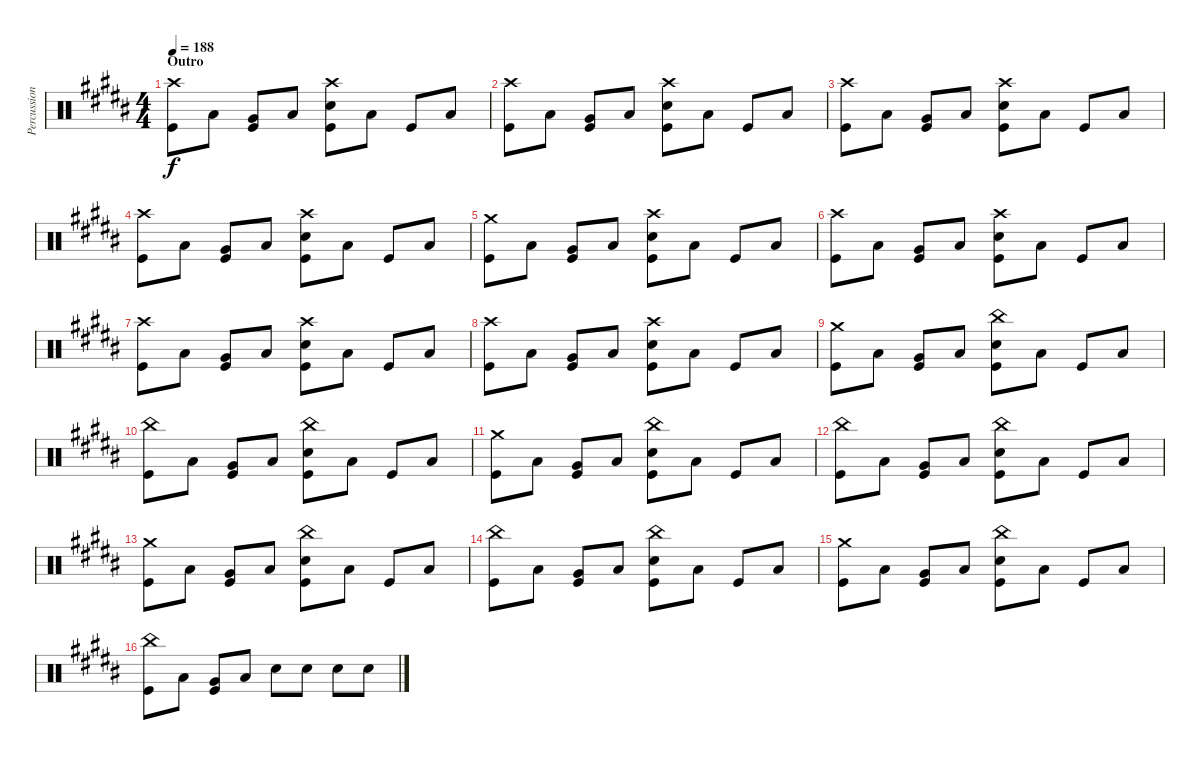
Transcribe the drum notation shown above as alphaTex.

\track ("Percussion" "Percussion") {instrument percussion}
\staff {score}
\articulation defaults
\ts (4 4)
\section ("" "Outro")
\tempo 188
\clef neutral
\ks b
("Crash high (hit)" "Kick (hit)").8{dy f} "Low Tom (hit)".8 ("Very Low Tom (hit)" "Kick (hit)").8 "Low Tom (hit)".8 ("Crash high (hit)" "Electric Snare (hit)" "Kick (hit)").8 "Low Floor Tom (hit)".8 "Kick (hit)".8 "Low Tom (hit)".8 |
("Crash high (hit)" "Kick (hit)").8 "Low Tom (hit)".8 ("Very Low Tom (hit)" "Kick (hit)").8 "Low Tom (hit)".8 ("Crash high (hit)" "Electric Snare (hit)" "Kick (hit)").8 "Low Floor Tom (hit)".8 "Kick (hit)".8 "Low Tom (hit)".8 |
("Crash high (hit)" "Kick (hit)").8 "Low Tom (hit)".8 ("Very Low Tom (hit)" "Kick (hit)").8 "Low Tom (hit)".8 ("Crash high (hit)" "Electric Snare (hit)" "Kick (hit)").8 "Low Floor Tom (hit)".8 "Kick (hit)".8 "Low Tom (hit)".8 |
("Crash high (hit)" "Kick (hit)").8 "Low Tom (hit)".8 ("Very Low Tom (hit)" "Kick (hit)").8 "Low Tom (hit)".8 ("Crash high (hit)" "Electric Snare (hit)" "Kick (hit)").8 "Low Floor Tom (hit)".8 "Kick (hit)".8 "Low Tom (hit)".8 |
("Crash medium (hit)" "Kick (hit)").8 "Low Tom (hit)".8 ("Very Low Tom (hit)" "Kick (hit)").8 "Low Tom (hit)".8 ("Crash high (hit)" "Electric Snare (hit)" "Kick (hit)").8 "Low Floor Tom (hit)".8 "Kick (hit)".8 "Low Tom (hit)".8 |
("Crash high (hit)" "Kick (hit)").8 "Low Tom (hit)".8 ("Very Low Tom (hit)" "Kick (hit)").8 "Low Tom (hit)".8 ("Crash high (hit)" "Electric Snare (hit)" "Kick (hit)").8 "Low Floor Tom (hit)".8 "Kick (hit)".8 "Low Tom (hit)".8 |
("Crash high (hit)" "Kick (hit)").8 "Low Tom (hit)".8 ("Very Low Tom (hit)" "Kick (hit)").8 "Low Tom (hit)".8 ("Crash high (hit)" "Electric Snare (hit)" "Kick (hit)").8 "Low Floor Tom (hit)".8 "Kick (hit)".8 "Low Tom (hit)".8 |
("Crash high (hit)" "Kick (hit)").8 "Low Tom (hit)".8 ("Very Low Tom (hit)" "Kick (hit)").8 "Low Tom (hit)".8 ("Crash high (hit)" "Electric Snare (hit)" "Kick (hit)").8 "Low Floor Tom (hit)".8 "Kick (hit)".8 "Low Tom (hit)".8 |
("Crash medium (hit)" "Kick (hit)").8 "Low Tom (hit)".8 ("Very Low Tom (hit)" "Kick (hit)").8 "Low Tom (hit)".8 ("China (hit)" "Electric Snare (hit)" "Kick (hit)").8 "Low Floor Tom (hit)".8 "Kick (hit)".8 "Low Tom (hit)".8 |
("China (hit)" "Kick (hit)").8 "Low Tom (hit)".8 ("Very Low Tom (hit)" "Kick (hit)").8 "Low Tom (hit)".8 ("China (hit)" "Electric Snare (hit)" "Kick (hit)").8 "Low Floor Tom (hit)".8 "Kick (hit)".8 "Low Tom (hit)".8 |
("Crash medium (hit)" "Kick (hit)").8 "Low Tom (hit)".8 ("Very Low Tom (hit)" "Kick (hit)").8 "Low Tom (hit)".8 ("China (hit)" "Electric Snare (hit)" "Kick (hit)").8 "Low Floor Tom (hit)".8 "Kick (hit)".8 "Low Tom (hit)".8 |
("China (hit)" "Kick (hit)").8 "Low Tom (hit)".8 ("Very Low Tom (hit)" "Kick (hit)").8 "Low Tom (hit)".8 ("China (hit)" "Electric Snare (hit)" "Kick (hit)").8 "Low Floor Tom (hit)".8 "Kick (hit)".8 "Low Tom (hit)".8 |
("Crash medium (hit)" "Kick (hit)").8 "Low Tom (hit)".8 ("Very Low Tom (hit)" "Kick (hit)").8 "Low Tom (hit)".8 ("China (hit)" "Electric Snare (hit)" "Kick (hit)").8 "Low Floor Tom (hit)".8 "Kick (hit)".8 "Low Tom (hit)".8 |
("China (hit)" "Kick (hit)").8 "Low Tom (hit)".8 ("Very Low Tom (hit)" "Kick (hit)").8 "Low Tom (hit)".8 ("China (hit)" "Electric Snare (hit)" "Kick (hit)").8 "Low Floor Tom (hit)".8 "Kick (hit)".8 "Low Tom (hit)".8 |
("Crash medium (hit)" "Kick (hit)").8 "Low Tom (hit)".8 ("Very Low Tom (hit)" "Kick (hit)").8 "Low Tom (hit)".8 ("China (hit)" "Electric Snare (hit)" "Kick (hit)").8 "Low Floor Tom (hit)".8 "Kick (hit)".8 "Low Tom (hit)".8 |
("China (hit)" "Kick (hit)").8 "Low Tom (hit)".8 ("Very Low Tom (hit)" "Kick (hit)").8 "Low Tom (hit)".8 "Electric Snare (hit)".8 "Electric Snare (hit)".8 "Electric Snare (hit)".8 "Electric Snare (hit)".8
